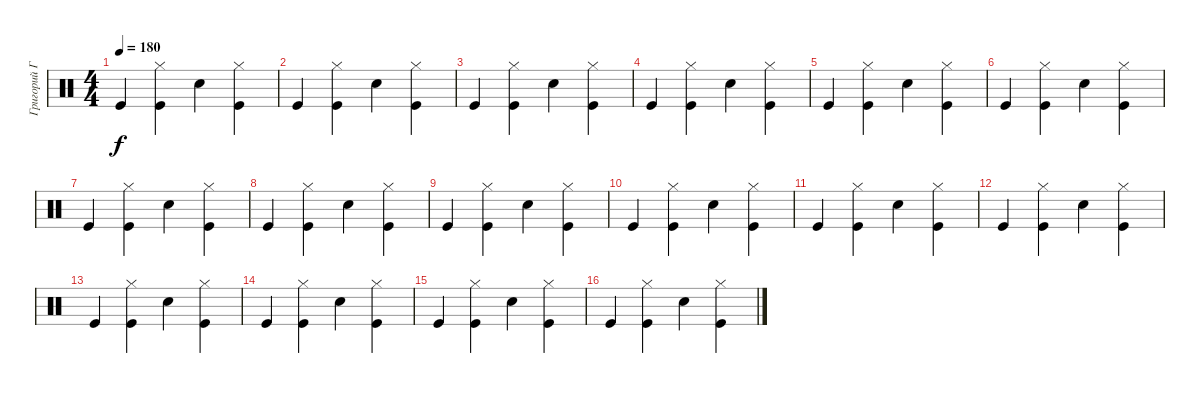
\track ("Григорий Габерман" "Григорий Г") {instrument percussion}
\staff {score}
\articulation defaults
\ts (4 4)
\tempo 180
\clef neutral
\ks c "Kick (hit)".4{dy f}
("Kick (hit)" "Hi-Hat (closed)").4 "Snare (hit) 2".4 ("Kick (hit)" "Hi-Hat (closed)").4 |
"Kick (hit)".4 ("Kick (hit)" "Hi-Hat (closed)").4 "Snare (hit) 2".4 ("Kick (hit)" "Hi-Hat (closed)").4 |
"Kick (hit)".4 ("Kick (hit)" "Hi-Hat (closed)").4 "Snare (hit) 2".4 ("Kick (hit)" "Hi-Hat (closed)").4 |
"Kick (hit)".4 ("Kick (hit)" "Hi-Hat (closed)").4 "Snare (hit) 2".4 ("Kick (hit)" "Hi-Hat (closed)").4 |
"Kick (hit)".4 ("Kick (hit)" "Hi-Hat (closed)").4 "Snare (hit) 2".4 ("Kick (hit)" "Hi-Hat (closed)").4 |
"Kick (hit)".4 ("Kick (hit)" "Hi-Hat (closed)").4 "Snare (hit) 2".4 ("Kick (hit)" "Hi-Hat (closed)").4 |
"Kick (hit)".4 ("Kick (hit)" "Hi-Hat (closed)").4 "Snare (hit) 2".4 ("Kick (hit)" "Hi-Hat (closed)").4 |
"Kick (hit)".4 ("Kick (hit)" "Hi-Hat (closed)").4 "Snare (hit) 2".4 ("Kick (hit)" "Hi-Hat (closed)").4 |
"Kick (hit)".4 ("Kick (hit)" "Hi-Hat (closed)").4 "Snare (hit) 2".4 ("Kick (hit)" "Hi-Hat (closed)").4 |
"Kick (hit)".4 ("Kick (hit)" "Hi-Hat (closed)").4 "Snare (hit) 2".4 ("Kick (hit)" "Hi-Hat (closed)").4 |
"Kick (hit)".4 ("Kick (hit)" "Hi-Hat (closed)").4 "Snare (hit) 2".4 ("Kick (hit)" "Hi-Hat (closed)").4 |
"Kick (hit)".4 ("Kick (hit)" "Hi-Hat (closed)").4 "Snare (hit) 2".4 ("Kick (hit)" "Hi-Hat (closed)").4 |
"Kick (hit)".4 ("Kick (hit)" "Hi-Hat (closed)").4 "Snare (hit) 2".4 ("Kick (hit)" "Hi-Hat (closed)").4 |
"Kick (hit)".4 ("Kick (hit)" "Hi-Hat (closed)").4 "Snare (hit) 2".4 ("Kick (hit)" "Hi-Hat (closed)").4 |
"Kick (hit)".4 ("Kick (hit)" "Hi-Hat (closed)").4 "Snare (hit) 2".4 ("Kick (hit)" "Hi-Hat (closed)").4 |
"Kick (hit)".4 ("Kick (hit)" "Hi-Hat (closed)").4 "Snare (hit) 2".4 ("Kick (hit)" "Hi-Hat (closed)").4
